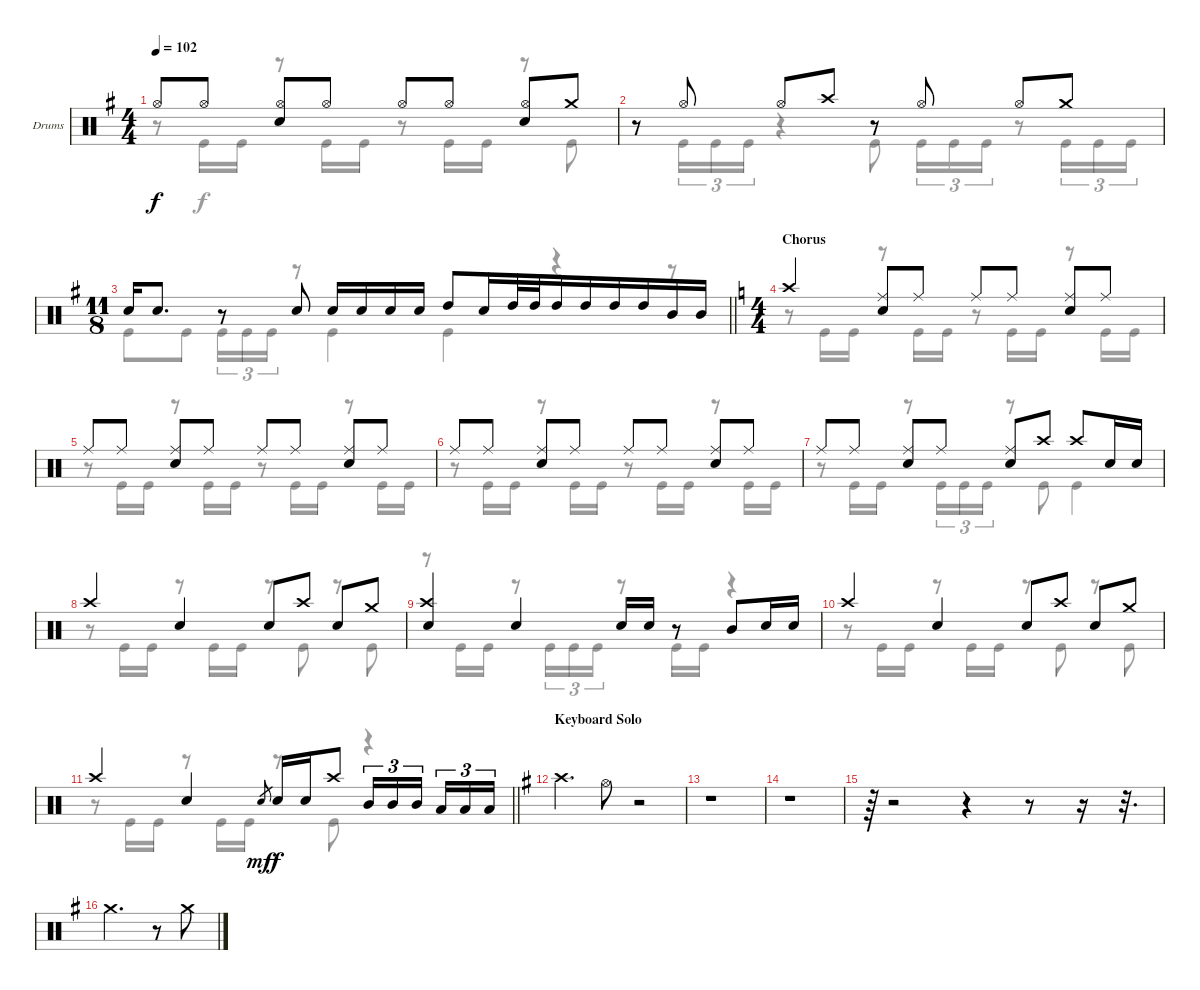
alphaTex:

\bracketExtendMode groupsimilarinstruments
\firstSystemTrackNameOrientation horizontal
\otherSystemsTrackNameOrientation horizontal
\track ("Drumkit" "Drums") {instrument percussion}
\staff {score}
\articulation defaults
\voice
\ts (4 4)
\tempo 102
\clef neutral
\ks g "Hi-Hat (open)".8{dy f} "Hi-Hat (open)".8
("Hi-Hat (open)" "Snare (hit) 2").8 "Hi-Hat (open)".8 "Hi-Hat (open)".8 "Hi-Hat (open)".8 ("Hi-Hat (open)" "Snare (hit) 2").8 "Crash medium (hit)".8 |
r.8 "Hi-Hat (open)".8 "Hi-Hat (open)".8 "Crash high (hit)".8 r.8 "Hi-Hat (open)".8 "Hi-Hat (open)".8 "Crash medium (hit)".8 |
\ts (11 8)
\beaming (8 2 2 2 5)
\barLineRight lightlight "Snare (hit) 2".16 "Snare (hit) 2".8{d}
r.8 "Snare (hit) 2".8 "Snare (hit) 2".16 "Snare (hit) 2".16 "Snare (hit) 2".16 "Snare (hit) 2".16 "High Tom (hit)".8 "Snare (hit) 2".16 "High Tom (hit)".32 "High Tom (hit)".32 "High Tom (hit)".16 "High Tom (hit)".16 "High Tom (hit)".16 "High Tom (hit)".16 "Mid Tom (hit)".16 "Mid Tom (hit)".16 |
\ts (4 4)
\beaming (8 2 2 2 2)
\section ("" "Chorus")
\ks c "Crash high (hit)".4
("Ride (middle)" "Snare (hit) 2").8 "Ride (middle)".8 "Ride (middle)".8 "Ride (middle)".8 ("Ride (middle)" "Snare (hit) 2").8 "Ride (middle)".8 |
"Ride (middle)".8 "Ride (middle)".8 ("Ride (middle)" "Snare (hit) 2").8 "Ride (middle)".8 "Ride (middle)".8 "Ride (middle)".8 ("Ride (middle)" "Snare (hit) 2").8 "Ride (middle)".8 |
"Ride (middle)".8 "Ride (middle)".8 ("Ride (middle)" "Snare (hit) 2").8 "Ride (middle)".8 "Ride (middle)".8 "Ride (middle)".8 ("Ride (middle)" "Snare (hit) 2").8 "Ride (middle)".8 |
"Ride (middle)".8 "Ride (middle)".8 ("Ride (middle)" "Snare (hit) 2").8 "Ride (middle)".8 ("Ride (middle)" "Snare (hit) 2").8 "Crash high (hit)".8 "Crash high (hit)".8 "Snare (hit) 2".16 "Snare (hit) 2".16 |
"Crash high (hit)".4 "Snare (hit) 2".4 "Snare (hit) 2".8 "Crash high (hit)".8 "Snare (hit) 2".8 "Crash medium (hit)".8 |
("Crash high (hit)" "Snare (hit) 2").4 "Snare (hit) 2".4 "Snare (hit) 2".16 "Snare (hit) 2".16 r.8 "Mid Tom (hit)".8 "Snare (hit) 2".16 "Snare (hit) 2".16 |
"Crash high (hit)".4 "Snare (hit) 2".4 "Snare (hit) 2".8 "Crash high (hit)".8 "Snare (hit) 2".8 "Crash medium (hit)".8 |
\barLineRight lightlight "Crash high (hit)".4 "Snare (hit) 2".4 "Snare (hit) 2".8{gr dy mf} "Snare (hit) 2".16{dy f} "Snare (hit) 2".16 "Crash high (hit)".8 "Mid Tom (hit)".16{tu (3 2)} "Mid Tom (hit)".16{tu (3 2)} "Mid Tom (hit)".16{tu (3 2)} "Low Tom (hit)".16{tu (3 2)} "Low Tom (hit)".16{tu (3 2)} "Low Tom (hit)".16{tu (3 2)}
|
\section ("" "Keyboard Solo")
\ks g "Crash high (hit)".4{d} "Hi-Hat (open)".8
r.2 |
r.1 |
r.1 |
r.64 r.2 r.4 r.8 r.16 r.32{d} |
"Crash medium (hit)".2{d} r.8 "Crash medium (hit)".8
\voice
\clef neutral
\ottava regular
\simile none
\ks g
r.8{dy f} "Kick (hit)".16 "Kick (hit)".16 r.8 "Kick (hit)".16 "Kick (hit)".16 r.8 "Kick (hit)".16 "Kick (hit)".16 r.8 "Kick (hit)".8 |
r.8 "Kick (hit)".16{tu (3 2)} "Kick (hit)".16{tu (3 2)} "Kick (hit)".16{tu (3 2)} r.4 "Kick (hit)".8 "Kick (hit)".16{tu (3 2)} "Kick (hit)".16{tu (3 2)} "Kick (hit)".16{tu (3 2)} r.8 "Kick (hit)".16{tu (3 2)} "Kick (hit)".16{tu (3 2)} "Kick (hit)".16{tu (3 2)} |
\barLineRight lightlight "Kick (hit)".8 "Kick (hit)".8 "Kick (hit)".16{tu (3 2)} "Kick (hit)".16{tu (3 2)} "Kick (hit)".16{tu (3 2)}
r.8 "Kick (hit)".4 "Kick (hit)".4 r.4 r.8 |
\ks c
r.8 "Kick (hit)".16 "Kick (hit)".16 r.8 "Kick (hit)".16 "Kick (hit)".16 r.8 "Kick (hit)".16 "Kick (hit)".16 r.8 "Kick (hit)".16 "Kick (hit)".16 |
r.8 "Kick (hit)".16 "Kick (hit)".16 r.8 "Kick (hit)".16 "Kick (hit)".16 r.8 "Kick (hit)".16 "Kick (hit)".16 r.8 "Kick (hit)".16 "Kick (hit)".16 |
r.8 "Kick (hit)".16 "Kick (hit)".16 r.8 "Kick (hit)".16 "Kick (hit)".16 r.8 "Kick (hit)".16 "Kick (hit)".16 r.8 "Kick (hit)".16 "Kick (hit)".16 |
r.8 "Kick (hit)".16 "Kick (hit)".16 r.8 "Kick (hit)".16{tu (3 2)} "Kick (hit)".16{tu (3 2)} "Kick (hit)".16{tu (3 2)} r.8 "Kick (hit)".8 "Kick (hit)".4 |
r.8 "Kick (hit)".16 "Kick (hit)".16 r.8 "Kick (hit)".16 "Kick (hit)".16 r.8 "Kick (hit)".8 r.8 "Kick (hit)".8 |
r.8 "Kick (hit)".16 "Kick (hit)".16 r.8 "Kick (hit)".16{tu (3 2)} "Kick (hit)".16{tu (3 2)} "Kick (hit)".16{tu (3 2)} r.8 "Kick (hit)".16 "Kick (hit)".16 r.4 |
r.8 "Kick (hit)".16 "Kick (hit)".16 r.8 "Kick (hit)".16 "Kick (hit)".16 r.8 "Kick (hit)".8 r.8 "Kick (hit)".8 |
\barLineRight lightlight
r.8 "Kick (hit)".16 "Kick (hit)".16 r.8 "Kick (hit)".16 "Kick (hit)".16 r.8 "Kick (hit)".8 r.4 |
\ks g
|
|
|
|
